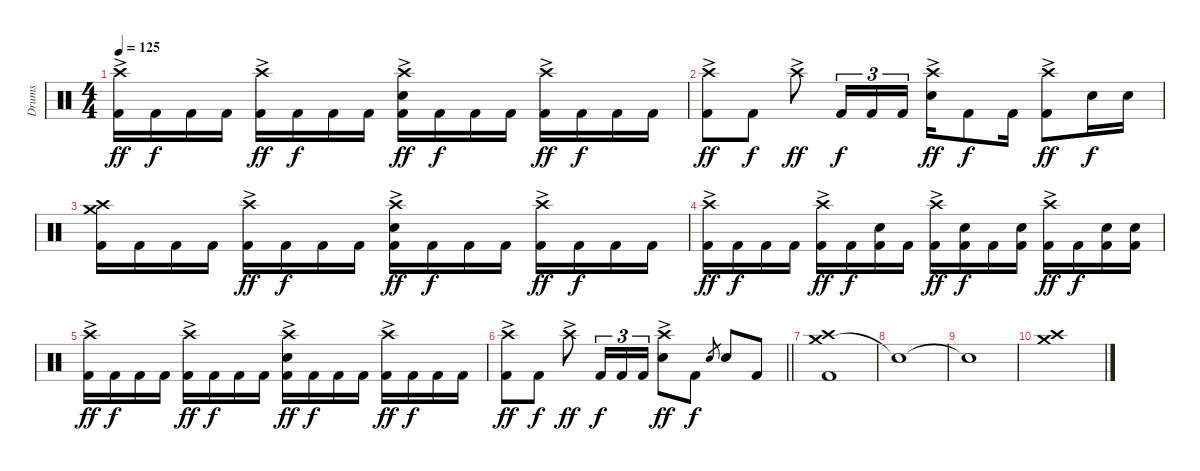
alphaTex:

\track ("Drums" "Drums") {instrument percussion}
\staff {score}
\articulation defaults
\ts (4 4)
\tempo 125
\clef neutral
\ks c
("Crash high (hit)"{ac} "Kick (hit) 2").16{dy ff} "Kick (hit) 2".16{dy f} "Kick (hit) 2".16 "Kick (hit) 2".16 ("Crash high (hit)"{ac} "Kick (hit) 2").16{dy ff} "Kick (hit) 2".16{dy f} "Kick (hit) 2".16 "Kick (hit) 2".16 ("Crash high (hit)"{ac} "Electric Snare (hit)" "Kick (hit) 2").16{dy ff} "Kick (hit) 2".16{dy f} "Kick (hit) 2".16 "Kick (hit) 2".16 ("Crash high (hit)"{ac} "Kick (hit) 2").16{dy ff} "Kick (hit) 2".16{dy f} "Kick (hit) 2".16 "Kick (hit) 2".16 |
("Crash high (hit)"{ac} "Kick (hit) 2").8{dy ff} "Kick (hit) 2".8{dy f} "Crash high (hit)"{ac}.8{dy ff} "Kick (hit) 2".16{tu (3 2) dy f} "Kick (hit) 2".16{tu (3 2)} "Kick (hit) 2".16{tu (3 2)} ("Crash high (hit)"{ac} "Electric Snare (hit)").16{dy ff} "Kick (hit) 2".8{dy f} "Kick (hit) 2".16 ("Crash high (hit)"{ac} "Kick (hit) 2").8{dy ff} "Electric Snare (hit)".16{dy f} "Electric Snare (hit)".16 |
("Crash medium (hit)" "Crash high (hit)" "Kick (hit) 2").16 "Kick (hit) 2".16 "Kick (hit) 2".16 "Kick (hit) 2".16 ("Crash high (hit)"{ac} "Kick (hit) 2").16{dy ff} "Kick (hit) 2".16{dy f} "Kick (hit) 2".16 "Kick (hit) 2".16 ("Crash high (hit)"{ac} "Electric Snare (hit)" "Kick (hit) 2").16{dy ff} "Kick (hit) 2".16{dy f} "Kick (hit) 2".16 "Kick (hit) 2".16 ("Crash high (hit)"{ac} "Kick (hit) 2").16{dy ff} "Kick (hit) 2".16{dy f} "Kick (hit) 2".16 "Kick (hit) 2".16 |
("Crash high (hit)"{ac} "Kick (hit) 2").16{dy ff} "Kick (hit) 2".16{dy f} "Kick (hit) 2".16 "Kick (hit) 2".16 ("Crash high (hit)"{ac} "Kick (hit) 2").16{dy ff} "Kick (hit) 2".16{dy f} ("Electric Snare (hit)" "Kick (hit) 2").16 "Kick (hit) 2".16 ("Crash high (hit)"{ac} "Kick (hit) 2").16{dy ff} ("Electric Snare (hit)" "Kick (hit) 2").16{dy f} "Kick (hit) 2".16 ("Electric Snare (hit)" "Kick (hit) 2").16 ("Crash high (hit)"{ac} "Kick (hit) 2").16{dy ff} "Kick (hit) 2".16{dy f} ("Electric Snare (hit)" "Kick (hit) 2").16 ("Electric Snare (hit)" "Kick (hit) 2").16 |
("Crash high (hit)"{ac} "Kick (hit) 2").16{dy ff} "Kick (hit) 2".16{dy f} "Kick (hit) 2".16 "Kick (hit) 2".16 ("Crash high (hit)"{ac} "Kick (hit) 2").16{dy ff} "Kick (hit) 2".16{dy f} "Kick (hit) 2".16 "Kick (hit) 2".16 ("Crash high (hit)"{ac} "Electric Snare (hit)" "Kick (hit) 2").16{dy ff} "Kick (hit) 2".16{dy f} "Kick (hit) 2".16 "Kick (hit) 2".16 ("Crash high (hit)"{ac} "Kick (hit) 2").16{dy ff} "Kick (hit) 2".16{dy f} "Kick (hit) 2".16 "Kick (hit) 2".16 |
\barLineRight lightlight
("Crash high (hit)"{ac} "Kick (hit) 2").8{dy ff} "Kick (hit) 2".8{dy f} "Crash high (hit)"{ac}.8{dy ff} "Kick (hit) 2".16{tu (3 2) dy f} "Kick (hit) 2".16{tu (3 2)} "Kick (hit) 2".16{tu (3 2)} ("Crash high (hit)"{ac} "Electric Snare (hit)").8{dy ff} "Kick (hit) 2".8{dy f} "Electric Snare (hit)".8{gr} "Electric Snare (hit)".8 "Kick (hit) 2".8 |
\section ("" "")
("Crash medium (hit)" "Crash high (hit)" "Kick (hit) 2").1 |
"Snare (hit)"{t}.1 |
"Snare (hit)"{t}.1 |
("Crash medium (hit)" "Crash high (hit)").1
